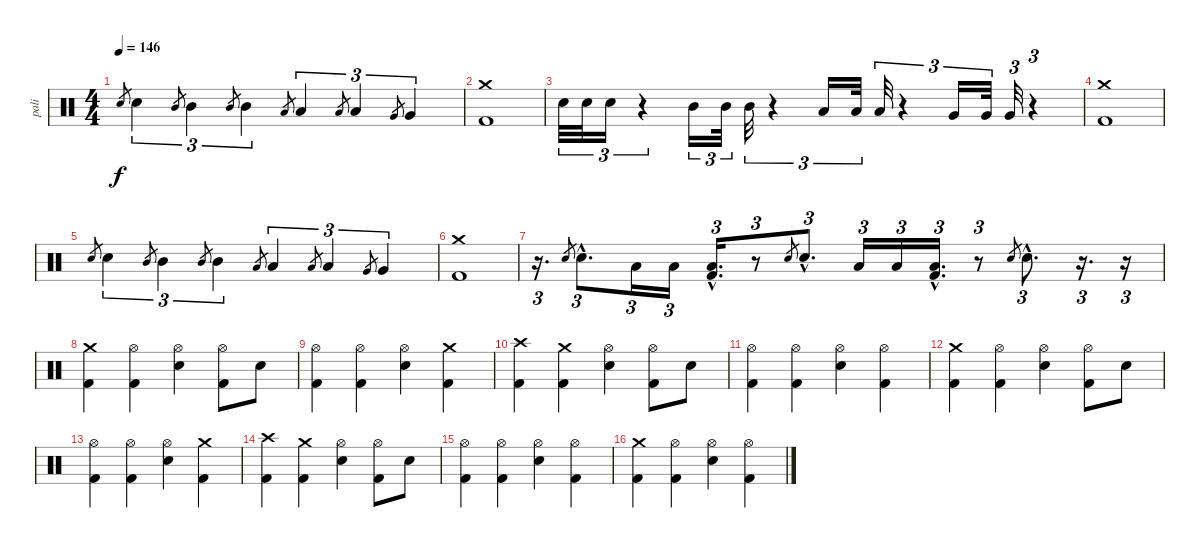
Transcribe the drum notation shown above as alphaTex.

\track ("pali" "pali") {instrument percussion}
\staff {score}
\articulation defaults
\ts (4 4)
\tempo 146
\clef neutral
\ks c "Electric Snare (hit)".8{gr dy f} "Electric Snare (hit)".4{tu (3 2)} "Mid Tom (hit)".8{gr} "Mid Tom (hit)".4{tu (3 2)} "Mid Tom (hit)".8{gr} "Mid Tom (hit)".4{tu (3 2)} "Low Tom (hit)".8{gr} "Low Tom (hit)".4{tu (3 2)} "Low Tom (hit)".8{gr} "Low Tom (hit)".4{tu (3 2)} "Very Low Tom (hit)".8{gr} "Very Low Tom (hit)".4{tu (3 2)}
|
("Kick (hit) 2" "Crash medium (hit)").1 |
"Electric Snare (hit)".32{tu (3 2)} "Electric Snare (hit)".32{tu (3 2)} "Electric Snare (hit)".16{tu (3 2)} r.4{tu (3 2)} "Mid Tom (hit)".16{tu (3 2)} "Mid Tom (hit)".32{tu (3 2)} "Mid Tom (hit)".32{tu (3 2)} r.4{tu (3 2)} "Low Tom (hit)".16{tu (3 2)} "Low Tom (hit)".32{tu (3 2)} "Low Tom (hit)".32{tu (3 2)} r.4{tu (3 2)} "Very Low Tom (hit)".16{tu (3 2)} "Very Low Tom (hit)".32{tu (3 2)} "Very Low Tom (hit)".32{tu (3 2)} r.4{tu (3 2)} |
("Kick (hit) 2" "Crash medium (hit)").1 |
"Electric Snare (hit)".8{gr} "Electric Snare (hit)".4{tu (3 2)} "Mid Tom (hit)".8{gr} "Mid Tom (hit)".4{tu (3 2)} "Mid Tom (hit)".8{gr} "Mid Tom (hit)".4{tu (3 2)} "Low Tom (hit)".8{gr} "Low Tom (hit)".4{tu (3 2)} "Low Tom (hit)".8{gr} "Low Tom (hit)".4{tu (3 2)} "Very Low Tom (hit)".8{gr} "Very Low Tom (hit)".4{tu (3 2)} |
("Kick (hit) 2" "Crash medium (hit)").1 |
r.16{d tu (3 2)} "Electric Snare (hit)".8{gr} "Electric Snare (hit)"{hac}.8{d tu (3 2)} "Low Tom (hit)".16{tu (3 2)} "Low Tom (hit)".16{tu (3 2)} ("Kick (hit) 2"{hac} "Low Floor Tom (hit)"{hac}).16{d tu (3 2)} r.8{tu (3 2)} "Electric Snare (hit)".8{gr} "Electric Snare (hit)"{hac}.8{d tu (3 2)} "Low Tom (hit)".16{tu (3 2)} "Low Tom (hit)".16{tu (3 2)} ("Kick (hit) 2"{hac} "Low Floor Tom (hit)"{hac}).16{d tu (3 2)} r.8{tu (3 2)} "Electric Snare (hit)".8{gr} "Electric Snare (hit)"{hac}.8{d tu (3 2)} r.16{d tu (3 2)} r.16{tu (3 2)} |
("Kick (hit) 2" "Crash medium (hit)").4 ("Kick (hit) 2" "Hi-Hat (open)").4 ("Electric Snare (hit)" "Hi-Hat (open)").4 ("Kick (hit) 2" "Hi-Hat (open)").8 "Electric Snare (hit)".8 |
("Kick (hit) 2" "Hi-Hat (open)").4 ("Kick (hit) 2" "Hi-Hat (open)").4 ("Electric Snare (hit)" "Hi-Hat (open)").4 ("Kick (hit) 2" "Crash medium (hit)").4 |
("Kick (hit) 2" "Crash high (hit)").4 ("Kick (hit) 2" "Crash medium (hit)").4 ("Electric Snare (hit)" "Hi-Hat (open)").4 ("Kick (hit) 2" "Hi-Hat (open)").8 "Electric Snare (hit)".8 |
("Kick (hit) 2" "Hi-Hat (open)").4 ("Kick (hit) 2" "Hi-Hat (open)").4 ("Electric Snare (hit)" "Hi-Hat (open)").4 ("Kick (hit) 2" "Hi-Hat (open)").4 |
("Kick (hit) 2" "Crash medium (hit)").4 ("Kick (hit) 2" "Hi-Hat (open)").4 ("Electric Snare (hit)" "Hi-Hat (open)").4 ("Kick (hit) 2" "Hi-Hat (open)").8 "Electric Snare (hit)".8 |
("Kick (hit) 2" "Hi-Hat (open)").4 ("Kick (hit) 2" "Hi-Hat (open)").4 ("Electric Snare (hit)" "Hi-Hat (open)").4 ("Kick (hit) 2" "Crash medium (hit)").4 |
("Kick (hit) 2" "Crash high (hit)").4 ("Kick (hit) 2" "Crash medium (hit)").4 ("Electric Snare (hit)" "Hi-Hat (open)").4 ("Kick (hit) 2" "Hi-Hat (open)").8 "Electric Snare (hit)".8 |
("Kick (hit) 2" "Hi-Hat (open)").4 ("Kick (hit) 2" "Hi-Hat (open)").4 ("Electric Snare (hit)" "Hi-Hat (open)").4 ("Kick (hit) 2" "Hi-Hat (open)").4 |
("Kick (hit) 2" "Crash medium (hit)").4 ("Kick (hit) 2" "Hi-Hat (open)").4 ("Electric Snare (hit)" "Hi-Hat (open)").4 ("Kick (hit) 2" "Hi-Hat (open)").4
